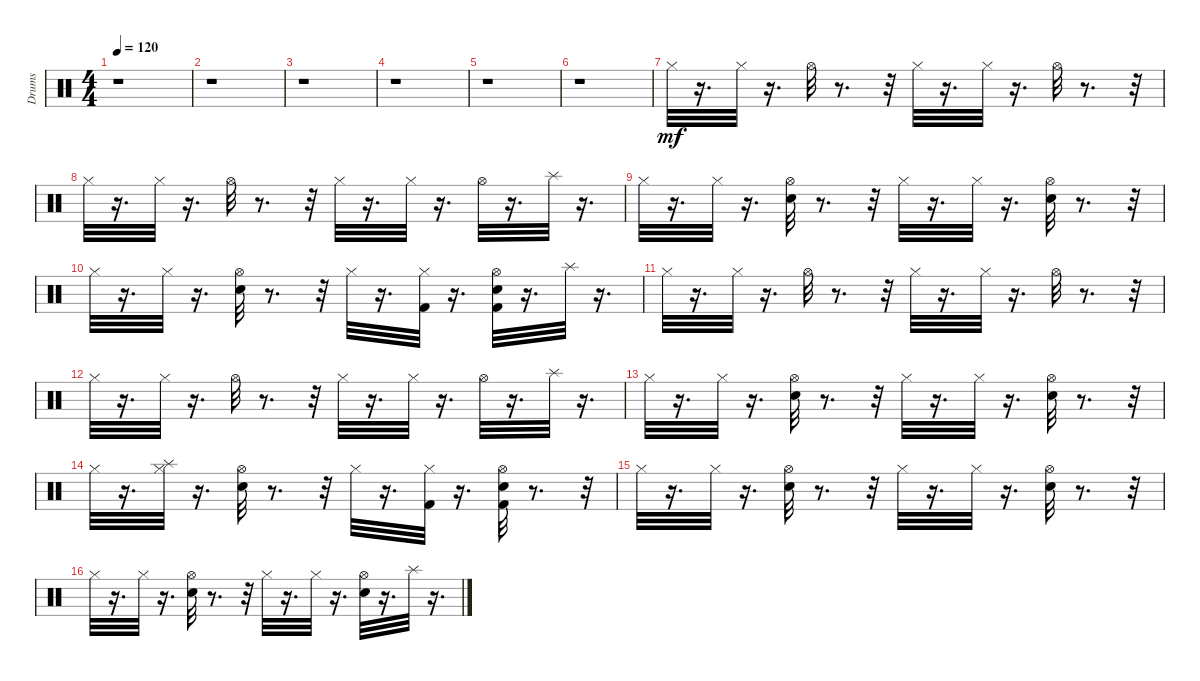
\track ("Drums" "Drums") {instrument percussion}
\staff {score}
\articulation defaults
\ts (4 4)
\tempo 120
\clef neutral
\ks c
r.1{dy mf} |
r.1 |
r.1 |
r.1 |
r.1 |
r.1 |
"Hi-Hat (closed)".32{volume 16} r.16{d} "Hi-Hat (closed)".32 r.16{d} "Hi-Hat (open)".32 r.8{d} r.32 "Hi-Hat (closed)".32 r.16{d} "Hi-Hat (closed)".32 r.16{d} "Hi-Hat (open)".32 r.8{d} r.32 |
"Hi-Hat (closed)".32 r.16{d} "Hi-Hat (closed)".32 r.16{d} "Hi-Hat (open)".32 r.8{d} r.32 "Hi-Hat (closed)".32 r.16{d} "Hi-Hat (closed)".32 r.16{d} "Hi-Hat (open)".32 r.16{d} "Splash (hit)".32 r.16{d} |
"Hi-Hat (closed)".32 r.16{d} "Hi-Hat (closed)".32 r.16{d} ("Snare (hit) 2" "Hi-Hat (open)").32 r.8{d} r.32 "Hi-Hat (closed)".32 r.16{d} "Hi-Hat (closed)".32 r.16{d} ("Snare (hit) 2" "Hi-Hat (open)").32 r.8{d} r.32 |
"Hi-Hat (closed)".32 r.16{d} "Hi-Hat (closed)".32 r.16{d} ("Snare (hit) 2" "Hi-Hat (open)").32 r.8{d} r.32 "Hi-Hat (closed)".32 r.16{d} ("Kick (hit) 2" "Hi-Hat (closed)").32 r.16{d} ("Kick (hit) 2" "Snare (hit) 2" "Hi-Hat (open)").32 r.16{d} "Splash (hit)".32 r.16{d} |
"Hi-Hat (closed)".32 r.16{d} "Hi-Hat (closed)".32 r.16{d} "Hi-Hat (open)".32 r.8{d} r.32 "Hi-Hat (closed)".32 r.16{d} "Hi-Hat (closed)".32 r.16{d} "Hi-Hat (open)".32 r.8{d} r.32 |
"Hi-Hat (closed)".32 r.16{d} "Hi-Hat (closed)".32 r.16{d} "Hi-Hat (open)".32 r.8{d} r.32 "Hi-Hat (closed)".32 r.16{d} "Hi-Hat (closed)".32 r.16{d} "Hi-Hat (open)".32 r.16{d} "Splash (hit)".32 r.16{d} |
"Hi-Hat (closed)".32 r.16{d} "Hi-Hat (closed)".32 r.16{d} ("Snare (hit) 2" "Hi-Hat (open)").32 r.8{d} r.32 "Hi-Hat (closed)".32 r.16{d} "Hi-Hat (closed)".32 r.16{d} ("Snare (hit) 2" "Hi-Hat (open)").32 r.8{d} r.32 |
"Hi-Hat (closed)".32 r.16{d} ("Splash (hit)" "Hi-Hat (closed)").32 r.16{d} ("Snare (hit) 2" "Hi-Hat (open)").32 r.8{d} r.32 "Hi-Hat (closed)".32 r.16{d} ("Kick (hit) 2" "Hi-Hat (closed)").32 r.16{d} ("Kick (hit) 2" "Snare (hit) 2" "Hi-Hat (open)").32 r.8{d} r.32 |
"Hi-Hat (closed)".32 r.16{d} "Hi-Hat (closed)".32 r.16{d} ("Snare (hit) 2" "Hi-Hat (open)").32 r.8{d} r.32 "Hi-Hat (closed)".32 r.16{d} "Hi-Hat (closed)".32 r.16{d} ("Snare (hit) 2" "Hi-Hat (open)").32 r.8{d} r.32 |
"Hi-Hat (closed)".32 r.16{d} "Hi-Hat (closed)".32 r.16{d} ("Snare (hit) 2" "Hi-Hat (open)").32 r.8{d} r.32 "Hi-Hat (closed)".32 r.16{d} "Hi-Hat (closed)".32 r.16{d} ("Snare (hit) 2" "Hi-Hat (open)").32 r.16{d} "Splash (hit)".32 r.16{d}
